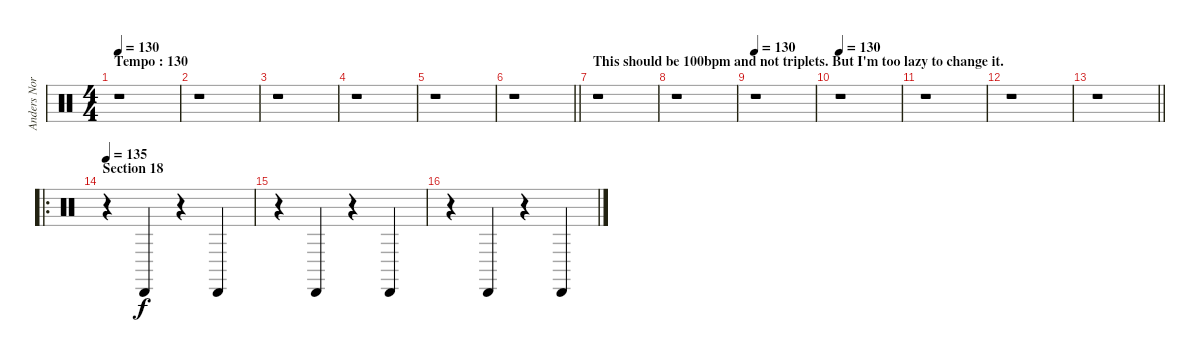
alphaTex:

\track ("Anders Nordin" "Anders Nor") {instrument percussion}
\staff {score}
\articulation defaults
\ts (4 4)
\section ("" "Tempo : 130")
\tempo 130
\clef neutral
\ks c
r.1{dy f} |
r.1 |
r.1 |
r.1 |
r.1 |
\barLineRight lightlight
r.1 |
\section ("" "This should be 100bpm and not triplets. But I'm too lazy to change it.")
r.1 |
r.1 |
\tempo 115
\tempo 130
r.1 |
\tempo 130
r.1 |
r.1 |
r.1 |
\barLineRight lightlight
r.1 |
\ro
\section ("" "Section 18")
\tempo 135
r.4 "Cabasa (hit)".4 r.4 "Cabasa (hit)".4 |
r.4 "Cabasa (hit)".4 r.4 "Cabasa (hit)".4 |
r.4 "Cabasa (hit)".4 r.4 "Cabasa (hit)".4
